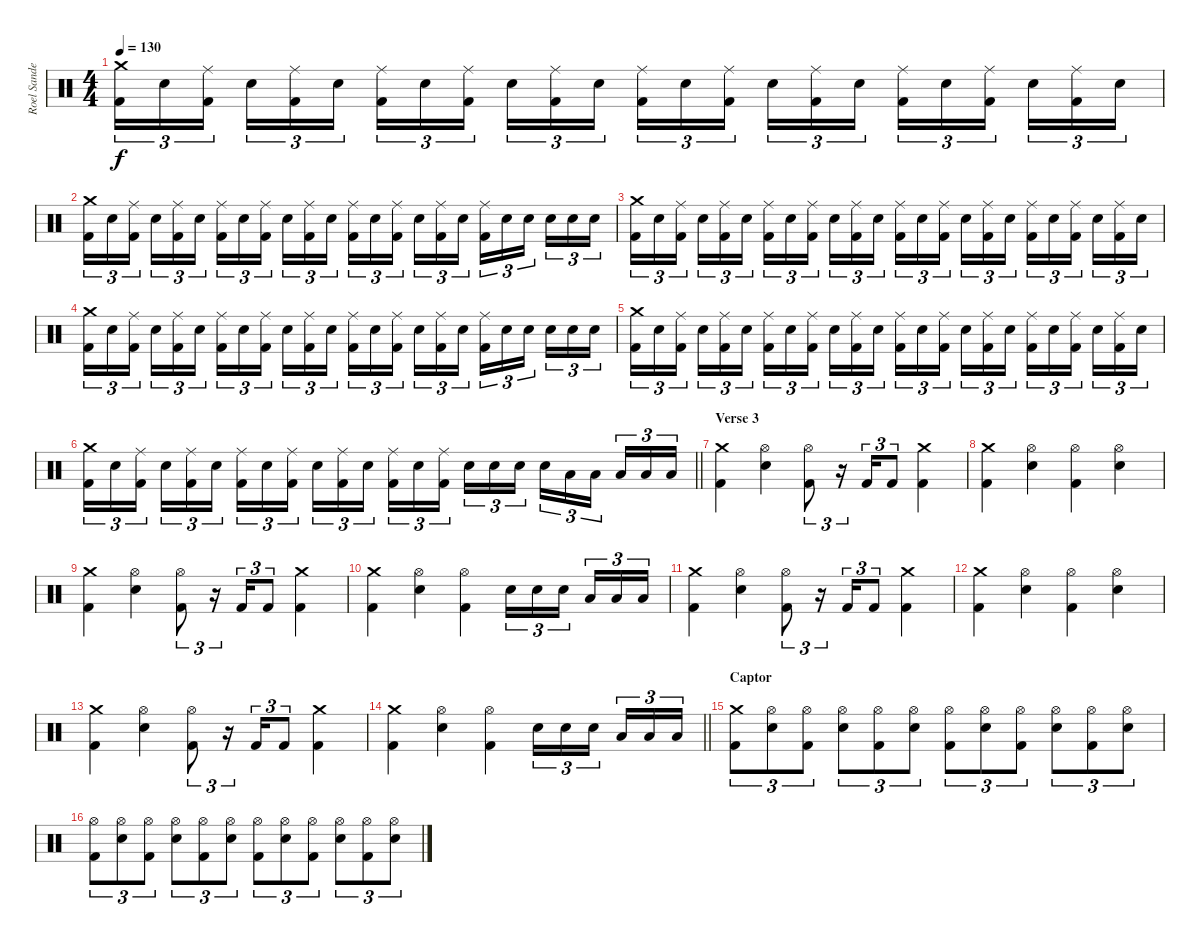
\track ("Roel Sander " "Roel Sande") {instrument percussion}
\staff {score}
\articulation defaults
\ts (4 4)
\tempo 130
\clef neutral
\ks c
("Crash medium (hit)" "Kick (hit) 2").16{tu (3 2) dy f} "Snare (hit) 2".16{tu (3 2)} ("Ride (middle)" "Kick (hit) 2").16{tu (3 2) beam splitsecondary} "Snare (hit) 2".16{tu (3 2)} ("Ride (middle)" "Kick (hit) 2").16{tu (3 2)} "Snare (hit) 2".16{tu (3 2)} ("Ride (middle)" "Kick (hit) 2").16{tu (3 2)} "Snare (hit) 2".16{tu (3 2)} ("Ride (middle)" "Kick (hit) 2").16{tu (3 2) beam splitsecondary} "Snare (hit) 2".16{tu (3 2)} ("Ride (middle)" "Kick (hit) 2").16{tu (3 2)} "Snare (hit) 2".16{tu (3 2)} ("Ride (middle)" "Kick (hit) 2").16{tu (3 2)} "Snare (hit) 2".16{tu (3 2)} ("Ride (middle)" "Kick (hit) 2").16{tu (3 2) beam splitsecondary} "Snare (hit) 2".16{tu (3 2)} ("Ride (middle)" "Kick (hit) 2").16{tu (3 2)} "Snare (hit) 2".16{tu (3 2)} ("Ride (middle)" "Kick (hit) 2").16{tu (3 2)} "Snare (hit) 2".16{tu (3 2)} ("Ride (middle)" "Kick (hit) 2").16{tu (3 2) beam splitsecondary} "Snare (hit) 2".16{tu (3 2)} ("Ride (middle)" "Kick (hit) 2").16{tu (3 2)} "Snare (hit) 2".16{tu (3 2)} |
("Crash medium (hit)" "Kick (hit) 2").16{tu (3 2)} "Snare (hit) 2".16{tu (3 2)} ("Ride (middle)" "Kick (hit) 2").16{tu (3 2) beam splitsecondary} "Snare (hit) 2".16{tu (3 2)} ("Ride (middle)" "Kick (hit) 2").16{tu (3 2)} "Snare (hit) 2".16{tu (3 2)} ("Ride (middle)" "Kick (hit) 2").16{tu (3 2)} "Snare (hit) 2".16{tu (3 2)} ("Ride (middle)" "Kick (hit) 2").16{tu (3 2) beam splitsecondary} "Snare (hit) 2".16{tu (3 2)} ("Ride (middle)" "Kick (hit) 2").16{tu (3 2)} "Snare (hit) 2".16{tu (3 2)} ("Ride (middle)" "Kick (hit) 2").16{tu (3 2)} "Snare (hit) 2".16{tu (3 2)} ("Ride (middle)" "Kick (hit) 2").16{tu (3 2) beam splitsecondary} "Snare (hit) 2".16{tu (3 2)} ("Ride (middle)" "Kick (hit) 2").16{tu (3 2)} "Snare (hit) 2".16{tu (3 2)} ("Ride (middle)" "Kick (hit) 2").16{tu (3 2)} "Snare (hit) 2".16{tu (3 2)} "Snare (hit) 2".16{tu (3 2) beam splitsecondary} "Snare (hit) 2".16{tu (3 2)} "Snare (hit) 2".16{tu (3 2)} "Snare (hit) 2".16{tu (3 2)} |
("Crash medium (hit)" "Kick (hit) 2").16{tu (3 2)} "Snare (hit) 2".16{tu (3 2)} ("Ride (middle)" "Kick (hit) 2").16{tu (3 2) beam splitsecondary} "Snare (hit) 2".16{tu (3 2)} ("Ride (middle)" "Kick (hit) 2").16{tu (3 2)} "Snare (hit) 2".16{tu (3 2)} ("Ride (middle)" "Kick (hit) 2").16{tu (3 2)} "Snare (hit) 2".16{tu (3 2)} ("Ride (middle)" "Kick (hit) 2").16{tu (3 2) beam splitsecondary} "Snare (hit) 2".16{tu (3 2)} ("Ride (middle)" "Kick (hit) 2").16{tu (3 2)} "Snare (hit) 2".16{tu (3 2)} ("Ride (middle)" "Kick (hit) 2").16{tu (3 2)} "Snare (hit) 2".16{tu (3 2)} ("Ride (middle)" "Kick (hit) 2").16{tu (3 2) beam splitsecondary} "Snare (hit) 2".16{tu (3 2)} ("Ride (middle)" "Kick (hit) 2").16{tu (3 2)} "Snare (hit) 2".16{tu (3 2)} ("Ride (middle)" "Kick (hit) 2").16{tu (3 2)} "Snare (hit) 2".16{tu (3 2)} ("Ride (middle)" "Kick (hit) 2").16{tu (3 2) beam splitsecondary} "Snare (hit) 2".16{tu (3 2)} ("Ride (middle)" "Kick (hit) 2").16{tu (3 2)} "Snare (hit) 2".16{tu (3 2)} |
("Crash medium (hit)" "Kick (hit) 2").16{tu (3 2)} "Snare (hit) 2".16{tu (3 2)} ("Ride (middle)" "Kick (hit) 2").16{tu (3 2) beam splitsecondary} "Snare (hit) 2".16{tu (3 2)} ("Ride (middle)" "Kick (hit) 2").16{tu (3 2)} "Snare (hit) 2".16{tu (3 2)} ("Ride (middle)" "Kick (hit) 2").16{tu (3 2)} "Snare (hit) 2".16{tu (3 2)} ("Ride (middle)" "Kick (hit) 2").16{tu (3 2) beam splitsecondary} "Snare (hit) 2".16{tu (3 2)} ("Ride (middle)" "Kick (hit) 2").16{tu (3 2)} "Snare (hit) 2".16{tu (3 2)} ("Ride (middle)" "Kick (hit) 2").16{tu (3 2)} "Snare (hit) 2".16{tu (3 2)} ("Ride (middle)" "Kick (hit) 2").16{tu (3 2) beam splitsecondary} "Snare (hit) 2".16{tu (3 2)} ("Ride (middle)" "Kick (hit) 2").16{tu (3 2)} "Snare (hit) 2".16{tu (3 2)} ("Ride (middle)" "Kick (hit) 2").16{tu (3 2)} "Snare (hit) 2".16{tu (3 2)} "Snare (hit) 2".16{tu (3 2) beam splitsecondary} "Snare (hit) 2".16{tu (3 2)} "Snare (hit) 2".16{tu (3 2)} "Snare (hit) 2".16{tu (3 2)} |
("Crash medium (hit)" "Kick (hit) 2").16{tu (3 2)} "Snare (hit) 2".16{tu (3 2)} ("Ride (middle)" "Kick (hit) 2").16{tu (3 2) beam splitsecondary} "Snare (hit) 2".16{tu (3 2)} ("Ride (middle)" "Kick (hit) 2").16{tu (3 2)} "Snare (hit) 2".16{tu (3 2)} ("Ride (middle)" "Kick (hit) 2").16{tu (3 2)} "Snare (hit) 2".16{tu (3 2)} ("Ride (middle)" "Kick (hit) 2").16{tu (3 2) beam splitsecondary} "Snare (hit) 2".16{tu (3 2)} ("Ride (middle)" "Kick (hit) 2").16{tu (3 2)} "Snare (hit) 2".16{tu (3 2)} ("Ride (middle)" "Kick (hit) 2").16{tu (3 2)} "Snare (hit) 2".16{tu (3 2)} ("Ride (middle)" "Kick (hit) 2").16{tu (3 2) beam splitsecondary} "Snare (hit) 2".16{tu (3 2)} ("Ride (middle)" "Kick (hit) 2").16{tu (3 2)} "Snare (hit) 2".16{tu (3 2)} ("Ride (middle)" "Kick (hit) 2").16{tu (3 2)} "Snare (hit) 2".16{tu (3 2)} ("Ride (middle)" "Kick (hit) 2").16{tu (3 2) beam splitsecondary} "Snare (hit) 2".16{tu (3 2)} ("Ride (middle)" "Kick (hit) 2").16{tu (3 2)} "Snare (hit) 2".16{tu (3 2)} |
\barLineRight lightlight
("Crash medium (hit)" "Kick (hit) 2").16{tu (3 2)} "Snare (hit) 2".16{tu (3 2)} ("Ride (middle)" "Kick (hit) 2").16{tu (3 2) beam splitsecondary} "Snare (hit) 2".16{tu (3 2)} ("Ride (middle)" "Kick (hit) 2").16{tu (3 2)} "Snare (hit) 2".16{tu (3 2)} ("Ride (middle)" "Kick (hit) 2").16{tu (3 2)} "Snare (hit) 2".16{tu (3 2)} ("Ride (middle)" "Kick (hit) 2").16{tu (3 2) beam splitsecondary} "Snare (hit) 2".16{tu (3 2)} ("Ride (middle)" "Kick (hit) 2").16{tu (3 2)} "Snare (hit) 2".16{tu (3 2)} ("Ride (middle)" "Kick (hit) 2").16{tu (3 2)} "Snare (hit) 2".16{tu (3 2)} ("Ride (middle)" "Kick (hit) 2").16{tu (3 2) beam splitsecondary} "Snare (hit) 2".16{tu (3 2)} "Snare (hit) 2".16{tu (3 2)} "Snare (hit) 2".16{tu (3 2)} "Snare (hit) 2".16{tu (3 2)} "Low Tom (hit)".16{tu (3 2)} "Low Tom (hit)".16{tu (3 2) beam splitsecondary} "Low Tom (hit)".16{tu (3 2)} "Low Tom (hit)".16{tu (3 2)} "Low Tom (hit)".16{tu (3 2)} |
\section ("" "Verse 3")
("Crash medium (hit)" "Kick (hit) 2").4 ("Hi-Hat (open)" "Snare (hit) 2").4 ("Hi-Hat (open)" "Kick (hit) 2").8{tu (3 2)} r.16{tu (3 2)} "Kick (hit) 2".16{tu (3 2)} "Kick (hit) 2".8{tu (3 2)} ("Crash medium (hit)" "Kick (hit) 2").4 |
("Crash medium (hit)" "Kick (hit) 2").4 ("Hi-Hat (open)" "Snare (hit) 2").4 ("Hi-Hat (open)" "Kick (hit) 2").4 ("Hi-Hat (open)" "Snare (hit) 2").4 |
("Crash medium (hit)" "Kick (hit) 2").4 ("Hi-Hat (open)" "Snare (hit) 2").4 ("Hi-Hat (open)" "Kick (hit) 2").8{tu (3 2)} r.16{tu (3 2)} "Kick (hit) 2".16{tu (3 2)} "Kick (hit) 2".8{tu (3 2)} ("Crash medium (hit)" "Kick (hit) 2").4 |
("Crash medium (hit)" "Kick (hit) 2").4 ("Hi-Hat (open)" "Snare (hit) 2").4 ("Hi-Hat (open)" "Kick (hit) 2").4 "Snare (hit) 2".16{tu (3 2)} "Snare (hit) 2".16{tu (3 2)} "Snare (hit) 2".16{tu (3 2) beam splitsecondary} "Low Tom (hit)".16{tu (3 2)} "Low Tom (hit)".16{tu (3 2)} "Low Tom (hit)".16{tu (3 2)} |
("Crash medium (hit)" "Kick (hit) 2").4 ("Hi-Hat (open)" "Snare (hit) 2").4 ("Hi-Hat (open)" "Kick (hit) 2").8{tu (3 2)} r.16{tu (3 2)} "Kick (hit) 2".16{tu (3 2)} "Kick (hit) 2".8{tu (3 2)} ("Crash medium (hit)" "Kick (hit) 2").4 |
("Crash medium (hit)" "Kick (hit) 2").4 ("Hi-Hat (open)" "Snare (hit) 2").4 ("Hi-Hat (open)" "Kick (hit) 2").4 ("Hi-Hat (open)" "Snare (hit) 2").4 |
("Crash medium (hit)" "Kick (hit) 2").4 ("Hi-Hat (open)" "Snare (hit) 2").4 ("Hi-Hat (open)" "Kick (hit) 2").8{tu (3 2)} r.16{tu (3 2)} "Kick (hit) 2".16{tu (3 2)} "Kick (hit) 2".8{tu (3 2)} ("Crash medium (hit)" "Kick (hit) 2").4 |
\barLineRight lightlight
("Crash medium (hit)" "Kick (hit) 2").4 ("Hi-Hat (open)" "Snare (hit) 2").4 ("Hi-Hat (open)" "Kick (hit) 2").4 "Snare (hit) 2".16{tu (3 2)} "Snare (hit) 2".16{tu (3 2)} "Snare (hit) 2".16{tu (3 2) beam splitsecondary} "Low Tom (hit)".16{tu (3 2)} "Low Tom (hit)".16{tu (3 2)} "Low Tom (hit)".16{tu (3 2)} |
\section ("" "Captor")
("Crash medium (hit)" "Kick (hit) 2").8{tu (3 2)} ("Hi-Hat (open)" "Snare (hit) 2").8{tu (3 2)} ("Hi-Hat (open)" "Kick (hit) 2").8{tu (3 2)} ("Hi-Hat (open)" "Snare (hit) 2").8{tu (3 2)} ("Hi-Hat (open)" "Kick (hit) 2").8{tu (3 2)} ("Hi-Hat (open)" "Snare (hit) 2").8{tu (3 2)} ("Hi-Hat (open)" "Kick (hit) 2").8{tu (3 2)} ("Hi-Hat (open)" "Snare (hit) 2").8{tu (3 2)} ("Hi-Hat (open)" "Kick (hit) 2").8{tu (3 2)} ("Hi-Hat (open)" "Snare (hit) 2").8{tu (3 2)} ("Hi-Hat (open)" "Kick (hit) 2").8{tu (3 2)} ("Hi-Hat (open)" "Snare (hit) 2").8{tu (3 2)} |
("Hi-Hat (open)" "Kick (hit) 2").8{tu (3 2)} ("Hi-Hat (open)" "Snare (hit) 2").8{tu (3 2)} ("Hi-Hat (open)" "Kick (hit) 2").8{tu (3 2)} ("Hi-Hat (open)" "Snare (hit) 2").8{tu (3 2)} ("Hi-Hat (open)" "Kick (hit) 2").8{tu (3 2)} ("Hi-Hat (open)" "Snare (hit) 2").8{tu (3 2)} ("Hi-Hat (open)" "Kick (hit) 2").8{tu (3 2)} ("Hi-Hat (open)" "Snare (hit) 2").8{tu (3 2)} ("Hi-Hat (open)" "Kick (hit) 2").8{tu (3 2)} ("Hi-Hat (open)" "Snare (hit) 2").8{tu (3 2)} ("Hi-Hat (open)" "Kick (hit) 2").8{tu (3 2)} ("Hi-Hat (open)" "Snare (hit) 2").8{tu (3 2)}
